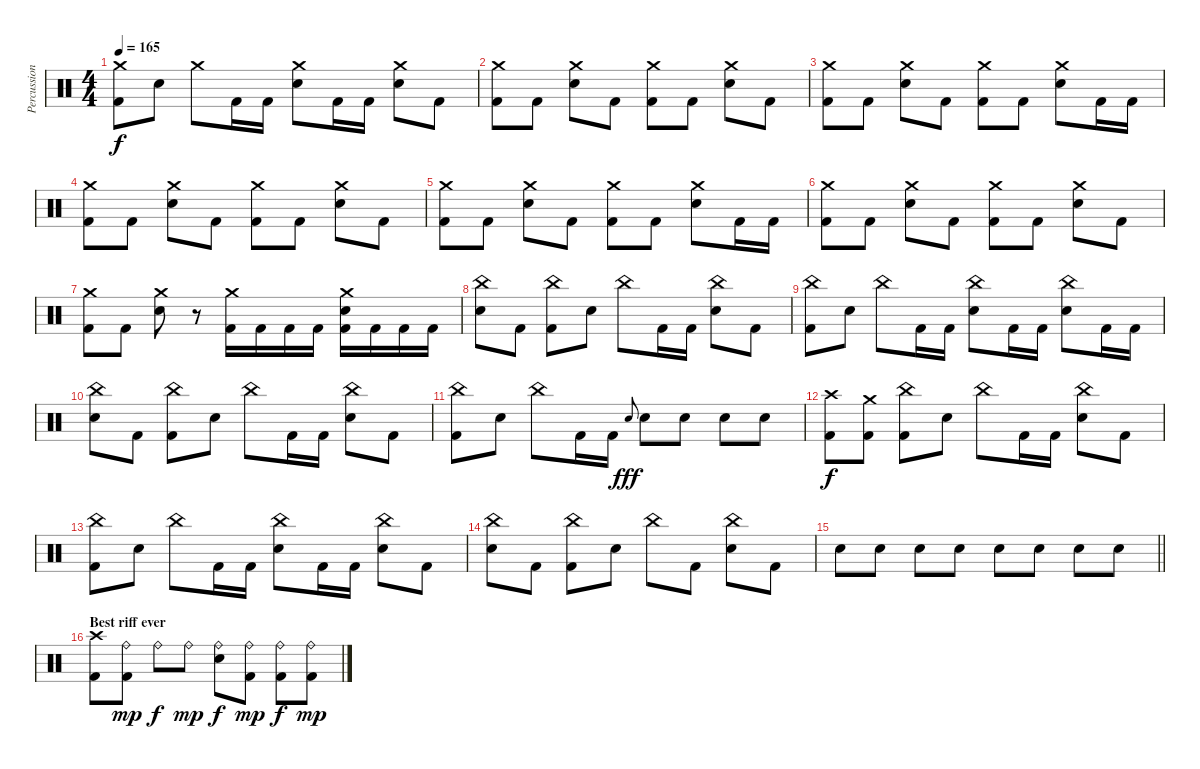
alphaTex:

\track ("Percussions" "Percussion") {instrument percussion}
\staff
\articulation defaults
\ts (4 4)
\tempo 165
\clef neutral
\ks c
("Crash medium (hit)" "Kick (hit) 2").8{dy f} "Electric Snare (hit)".8 "Crash medium (hit)".8 "Kick (hit) 2".16 "Kick (hit) 2".16 ("Crash medium (hit)" "Electric Snare (hit)").8 "Kick (hit) 2".16 "Kick (hit) 2".16 ("Crash medium (hit)" "Electric Snare (hit)").8 "Kick (hit) 2".8 |
("Crash medium (hit)" "Kick (hit) 2").8 "Kick (hit) 2".8 ("Crash medium (hit)" "Electric Snare (hit)").8 "Kick (hit) 2".8 ("Crash medium (hit)" "Kick (hit) 2").8 "Kick (hit) 2".8 ("Crash medium (hit)" "Electric Snare (hit)").8 "Kick (hit) 2".8 |
("Crash medium (hit)" "Kick (hit) 2").8 "Kick (hit) 2".8 ("Crash medium (hit)" "Electric Snare (hit)").8 "Kick (hit) 2".8 ("Crash medium (hit)" "Kick (hit) 2").8 "Kick (hit) 2".8 ("Crash medium (hit)" "Electric Snare (hit)").8 "Kick (hit) 2".16 "Kick (hit) 2".16 |
("Crash medium (hit)" "Kick (hit) 2").8 "Kick (hit) 2".8 ("Crash medium (hit)" "Electric Snare (hit)").8 "Kick (hit) 2".8 ("Crash medium (hit)" "Kick (hit) 2").8 "Kick (hit) 2".8 ("Crash medium (hit)" "Electric Snare (hit)").8 "Kick (hit) 2".8 |
("Crash medium (hit)" "Kick (hit) 2").8 "Kick (hit) 2".8 ("Crash medium (hit)" "Electric Snare (hit)").8 "Kick (hit) 2".8 ("Crash medium (hit)" "Kick (hit) 2").8 "Kick (hit) 2".8 ("Crash medium (hit)" "Electric Snare (hit)").8 "Kick (hit) 2".16 "Kick (hit) 2".16 |
("Crash medium (hit)" "Kick (hit) 2").8 "Kick (hit) 2".8 ("Crash medium (hit)" "Electric Snare (hit)").8 "Kick (hit) 2".8 ("Crash medium (hit)" "Kick (hit) 2").8 "Kick (hit) 2".8 ("Crash medium (hit)" "Electric Snare (hit)").8 "Kick (hit) 2".8 |
("Crash medium (hit)" "Kick (hit) 2").8 "Kick (hit) 2".8 ("Crash medium (hit)" "Electric Snare (hit)").8 r.8 ("Crash medium (hit)" "Kick (hit) 2").16 "Kick (hit) 2".16 "Kick (hit) 2".16 "Kick (hit) 2".16 ("Crash medium (hit)" "Electric Snare (hit)" "Kick (hit) 2").16 "Kick (hit) 2".16 "Kick (hit) 2".16 "Kick (hit) 2".16 |
("China (hit)" "Electric Snare (hit)").8 "Kick (hit) 2".8 ("China (hit)" "Kick (hit) 2").8 "Electric Snare (hit)".8 "China (hit)".8 "Kick (hit) 2".16 "Kick (hit) 2".16 ("China (hit)" "Electric Snare (hit)").8 "Kick (hit) 2".8 |
("China (hit)" "Kick (hit) 2").8 "Electric Snare (hit)".8 "China (hit)".8 "Kick (hit) 2".16 "Kick (hit) 2".16 ("China (hit)" "Electric Snare (hit)").8 "Kick (hit) 2".16 "Kick (hit) 2".16 ("China (hit)" "Electric Snare (hit)").8 "Kick (hit) 2".16 "Kick (hit) 2".16 |
("China (hit)" "Electric Snare (hit)").8 "Kick (hit) 2".8 ("China (hit)" "Kick (hit) 2").8 "Electric Snare (hit)".8 "China (hit)".8 "Kick (hit) 2".16 "Kick (hit) 2".16 ("China (hit)" "Electric Snare (hit)").8 "Kick (hit) 2".8 |
("China (hit)" "Kick (hit) 2").8 "Electric Snare (hit)".8 "China (hit)".8 "Kick (hit) 2".16 "Kick (hit) 2".16 "Electric Snare (hit)".8{gr onbeat dy fff} "Electric Snare (hit)".8 "Electric Snare (hit)".8 "Electric Snare (hit)".8 "Electric Snare (hit)".8 |
("Crash high (hit)" "Kick (hit) 2").8{dy f} ("Crash medium (hit)" "Kick (hit) 2").8 ("China (hit)" "Kick (hit) 2").8 "Electric Snare (hit)".8 "China (hit)".8 "Kick (hit) 2".16 "Kick (hit) 2".16 ("China (hit)" "Electric Snare (hit)").8 "Kick (hit) 2".8 |
("China (hit)" "Kick (hit) 2").8 "Electric Snare (hit)".8 "China (hit)".8 "Kick (hit) 2".16 "Kick (hit) 2".16 ("China (hit)" "Electric Snare (hit)").8 "Kick (hit) 2".16 "Kick (hit) 2".16 ("China (hit)" "Electric Snare (hit)").8 "Kick (hit) 2".8 |
("China (hit)" "Electric Snare (hit)").8 "Kick (hit) 2".8 ("China (hit)" "Kick (hit) 2").8 "Electric Snare (hit)".8 "China (hit)".8 "Kick (hit) 2".8 ("China (hit)" "Electric Snare (hit)").8 "Kick (hit) 2".8 |
\barLineRight lightlight "Electric Snare (hit)".8 "Electric Snare (hit)".8 "Electric Snare (hit)".8 "Electric Snare (hit)".8 "Electric Snare (hit)".8 "Electric Snare (hit)".8 "Electric Snare (hit)".8 "Electric Snare (hit)".8
|
\section ("" "Best riff ever")
("Crash high (hit)" "Kick (hit) 2").8 ("Ride (bell)" "Kick (hit) 2").8{dy mp} "Ride (bell)".8{dy f} "Ride (bell)".8{dy mp} ("Ride (bell)" "Electric Snare (hit)").8{dy f} ("Ride (bell)" "Kick (hit) 2").8{dy mp} ("Ride (bell)" "Kick (hit) 2").8{dy f} ("Ride (bell)" "Kick (hit) 2").8{dy mp}
